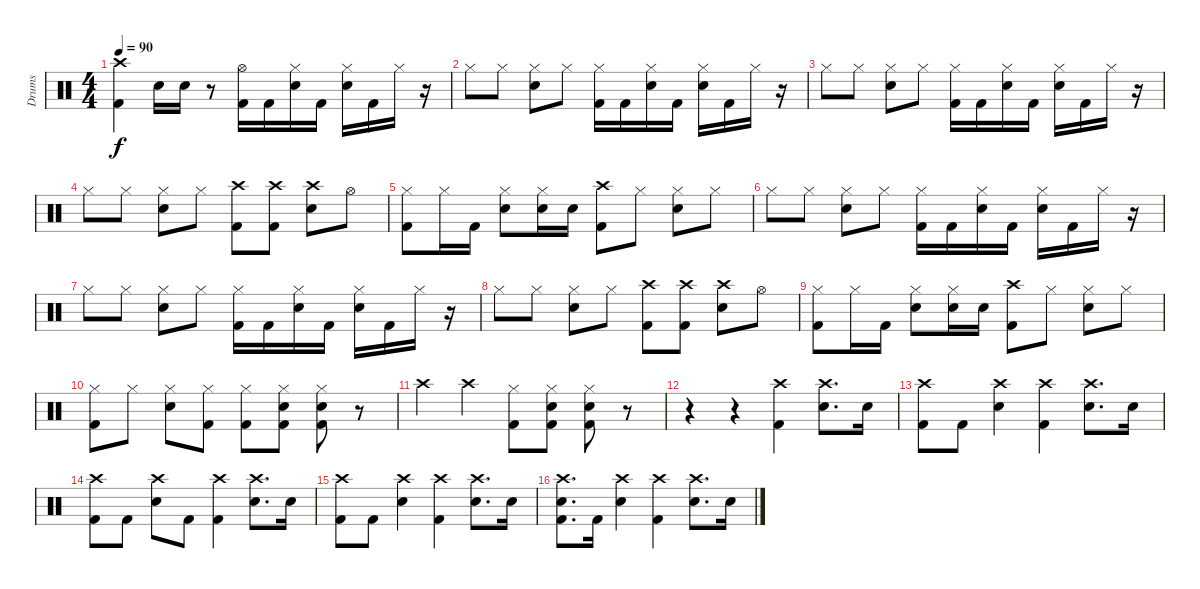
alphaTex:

\track ("Drums" "Drums") {instrument percussion}
\staff {score}
\articulation defaults
\ts (4 4)
\tempo 90
\clef neutral
\ks c
("Crash high (hit)" "Kick (hit) 2").4{dy f} "Snare (hit) 2".16 "Snare (hit) 2".16 r.8 ("Hi-Hat (open)" "Kick (hit) 2").16 "Kick (hit) 2".16 ("Hi-Hat (closed)" "Snare (hit) 2").16 "Kick (hit) 2".16 ("Hi-Hat (closed)" "Snare (hit) 2").16 "Kick (hit) 2".16 "Hi-Hat (closed)".16 r.16 |
"Hi-Hat (closed)".8 "Hi-Hat (closed)".8 ("Hi-Hat (closed)" "Snare (hit) 2").8 "Hi-Hat (closed)".8 ("Hi-Hat (closed)" "Kick (hit) 2").16 "Kick (hit) 2".16 ("Hi-Hat (closed)" "Snare (hit) 2").16 "Kick (hit) 2".16 ("Hi-Hat (closed)" "Snare (hit) 2").16 "Kick (hit) 2".16 "Hi-Hat (closed)".16 r.16 |
"Hi-Hat (closed)".8 "Hi-Hat (closed)".8 ("Hi-Hat (closed)" "Snare (hit) 2").8 "Hi-Hat (closed)".8 ("Hi-Hat (closed)" "Kick (hit) 2").16 "Kick (hit) 2".16 ("Hi-Hat (closed)" "Snare (hit) 2").16 "Kick (hit) 2".16 ("Hi-Hat (closed)" "Snare (hit) 2").16 "Kick (hit) 2".16 "Hi-Hat (closed)".16 r.16 |
"Hi-Hat (closed)".8 "Hi-Hat (closed)".8 ("Hi-Hat (closed)" "Snare (hit) 2").8 "Hi-Hat (closed)".8 ("Crash high (hit)" "Kick (hit) 2").8 ("Crash high (hit)" "Kick (hit) 2").8 ("Crash high (hit)" "Snare (hit) 2").8 "Hi-Hat (open)".8 |
("Hi-Hat (closed)" "Kick (hit) 2").8 "Hi-Hat (closed)".16 "Kick (hit) 2".16 ("Hi-Hat (closed)" "Snare (hit) 2").8 ("Hi-Hat (closed)" "Snare (hit) 2").16 "Snare (hit) 2".16 ("Crash high (hit)" "Kick (hit) 2").8 "Hi-Hat (closed)".8 ("Hi-Hat (closed)" "Snare (hit) 2").8 "Hi-Hat (closed)".8 |
"Hi-Hat (closed)".8 "Hi-Hat (closed)".8 ("Hi-Hat (closed)" "Snare (hit) 2").8 "Hi-Hat (closed)".8 ("Hi-Hat (closed)" "Kick (hit) 2").16 "Kick (hit) 2".16 ("Hi-Hat (closed)" "Snare (hit) 2").16 "Kick (hit) 2".16 ("Hi-Hat (closed)" "Snare (hit) 2").16 "Kick (hit) 2".16 "Hi-Hat (closed)".16 r.16 |
"Hi-Hat (closed)".8 "Hi-Hat (closed)".8 ("Hi-Hat (closed)" "Snare (hit) 2").8 "Hi-Hat (closed)".8 ("Hi-Hat (closed)" "Kick (hit) 2").16 "Kick (hit) 2".16 ("Hi-Hat (closed)" "Snare (hit) 2").16 "Kick (hit) 2".16 ("Hi-Hat (closed)" "Snare (hit) 2").16 "Kick (hit) 2".16 "Hi-Hat (closed)".16 r.16 |
"Hi-Hat (closed)".8 "Hi-Hat (closed)".8 ("Hi-Hat (closed)" "Snare (hit) 2").8 "Hi-Hat (closed)".8 ("Crash high (hit)" "Kick (hit) 2").8 ("Crash high (hit)" "Kick (hit) 2").8 ("Crash high (hit)" "Snare (hit) 2").8 "Hi-Hat (open)".8 |
("Hi-Hat (closed)" "Kick (hit) 2").8 "Hi-Hat (closed)".16 "Kick (hit) 2".16 ("Hi-Hat (closed)" "Snare (hit) 2").8 ("Hi-Hat (closed)" "Snare (hit) 2").16 "Snare (hit) 2".16 ("Crash high (hit)" "Kick (hit) 2").8 "Hi-Hat (closed)".8 ("Hi-Hat (closed)" "Snare (hit) 2").8 "Hi-Hat (closed)".8 |
("Hi-Hat (closed)" "Kick (hit) 2").8 "Hi-Hat (closed)".8 ("Hi-Hat (closed)" "Snare (hit) 2").8 ("Hi-Hat (closed)" "Kick (hit) 2").8 ("Hi-Hat (closed)" "Kick (hit) 2").8 ("Hi-Hat (closed)" "Snare (hit) 2" "Kick (hit) 2").8 ("Hi-Hat (closed)" "Snare (hit) 2" "Kick (hit) 2").8 r.8 |
"Crash high (hit)".4 "Crash high (hit)".4 ("Hi-Hat (closed)" "Kick (hit) 2").8 ("Hi-Hat (closed)" "Snare (hit) 2" "Kick (hit) 2").8 ("Hi-Hat (closed)" "Snare (hit) 2" "Kick (hit) 2").8 r.8 |
r.4 r.4 ("Crash high (hit)" "Kick (hit) 2").4 ("Crash high (hit)" "Snare (hit) 2").8{d} "Snare (hit) 2".16 |
("Crash high (hit)" "Kick (hit) 2").8 "Kick (hit) 2".8 ("Crash high (hit)" "Snare (hit) 2").4 ("Crash high (hit)" "Kick (hit) 2").4 ("Crash high (hit)" "Snare (hit) 2").8{d} "Snare (hit) 2".16 |
("Crash high (hit)" "Kick (hit) 2").8 "Kick (hit) 2".8 ("Crash high (hit)" "Snare (hit) 2").8 "Kick (hit) 2".8 ("Crash high (hit)" "Kick (hit) 2").4 ("Crash high (hit)" "Snare (hit) 2").8{d} "Snare (hit) 2".16 |
("Crash high (hit)" "Kick (hit) 2").8 "Kick (hit) 2".8 ("Crash high (hit)" "Snare (hit) 2").4 ("Crash high (hit)" "Kick (hit) 2").4 ("Crash high (hit)" "Snare (hit) 2").8{d} "Snare (hit) 2".16 |
("Crash high (hit)" "Snare (hit) 2" "Kick (hit) 2").8{d} "Kick (hit) 2".16 ("Crash high (hit)" "Snare (hit) 2").4 ("Crash high (hit)" "Kick (hit) 2").4 ("Crash high (hit)" "Snare (hit) 2").8{d} "Snare (hit) 2".16
